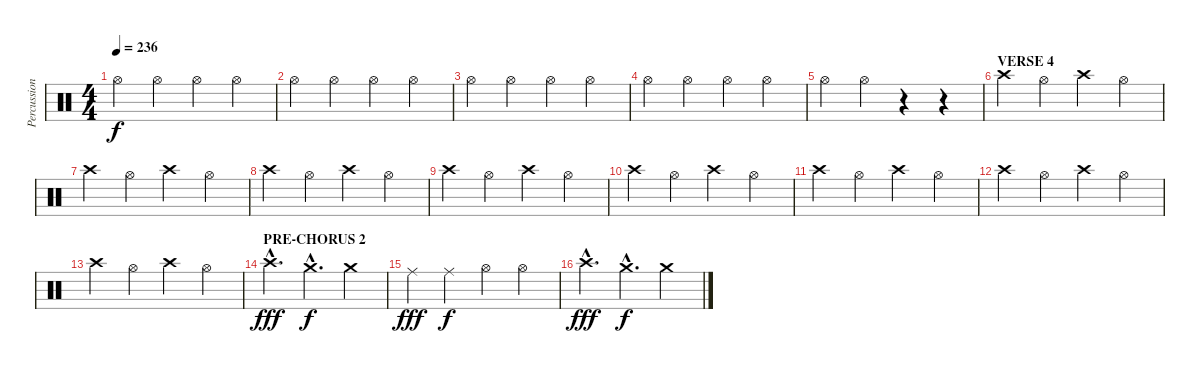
\track ("Percussions" "Percussion") {instrument percussion}
\staff {score}
\articulation defaults
\ts (4 4)
\tempo 236
\clef neutral
\ks c "Hi-Hat (open)".4{dy f} "Hi-Hat (open)".4 "Hi-Hat (open)".4 "Hi-Hat (open)".4
|
"Hi-Hat (open)".4 "Hi-Hat (open)".4 "Hi-Hat (open)".4 "Hi-Hat (open)".4 |
"Hi-Hat (open)".4 "Hi-Hat (open)".4 "Hi-Hat (open)".4 "Hi-Hat (open)".4 |
"Hi-Hat (open)".4 "Hi-Hat (open)".4 "Hi-Hat (open)".4 "Hi-Hat (open)".4 |
"Hi-Hat (open)".4 "Hi-Hat (open)".4 r.4 r.4 |
\section ("" "VERSE 4")
"Crash high (hit)".4 "Hi-Hat (open)".4 "Crash high (hit)".4 "Hi-Hat (open)".4 |
"Crash high (hit)".4 "Hi-Hat (open)".4 "Crash high (hit)".4 "Hi-Hat (open)".4 |
"Crash high (hit)".4 "Hi-Hat (open)".4 "Crash high (hit)".4 "Hi-Hat (open)".4 |
"Crash high (hit)".4 "Hi-Hat (open)".4 "Crash high (hit)".4 "Hi-Hat (open)".4 |
"Crash high (hit)".4 "Hi-Hat (open)".4 "Crash high (hit)".4 "Hi-Hat (open)".4 |
"Crash high (hit)".4 "Hi-Hat (open)".4 "Crash high (hit)".4 "Hi-Hat (open)".4 |
"Crash high (hit)".4 "Hi-Hat (open)".4 "Crash high (hit)".4 "Hi-Hat (open)".4 |
"Crash high (hit)".4 "Hi-Hat (open)".4 "Crash high (hit)".4 "Hi-Hat (open)".4 |
\section ("" "PRE-CHORUS 2")
"Crash high (hit)"{hac}.4{d dy fff} "Crash medium (hit)"{hac}.4{d dy f} "Crash medium (hit)".4 |
"Ride (middle)".4{dy fff} "Ride (middle)".4{dy f} "Hi-Hat (open)".4 "Hi-Hat (open)".4 |
"Crash high (hit)"{hac}.4{d dy fff} "Crash medium (hit)"{hac}.4{d dy f} "Crash medium (hit)".4
